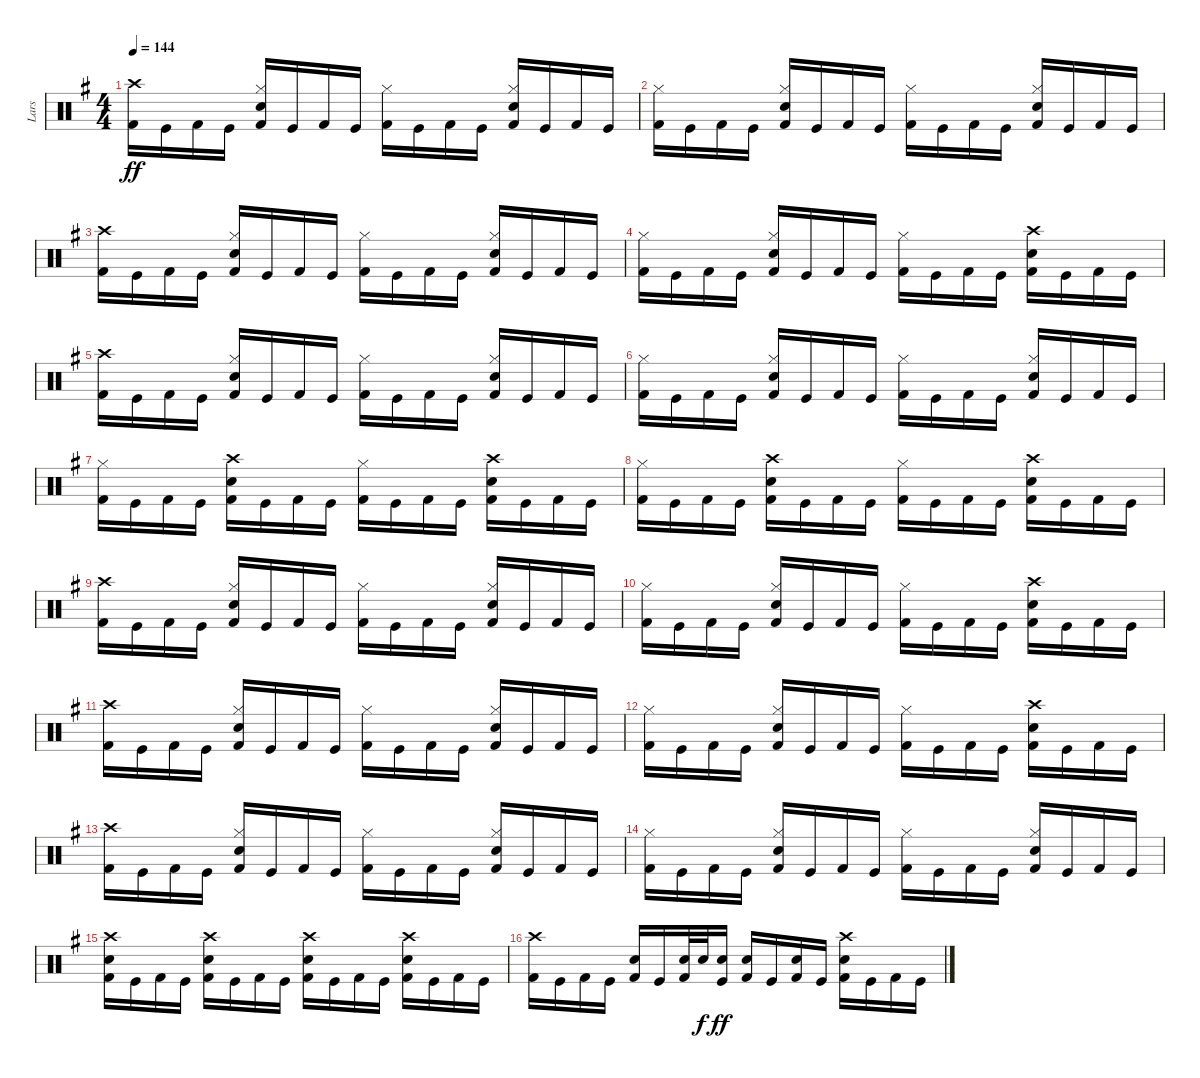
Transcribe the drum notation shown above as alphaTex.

\track ("Lars" "Lars") {instrument percussion}
\staff {score}
\articulation defaults
\ts (4 4)
\tempo 144
\clef neutral
\ks g
("Crash high (hit)" "Kick (hit) 2").16{dy ff} "Kick (hit)".16 "Kick (hit) 2".16 "Kick (hit)".16 ("Hi-Hat (closed)" "Snare (hit) 2" "Kick (hit) 2").16 "Kick (hit)".16 "Kick (hit) 2".16 "Kick (hit)".16 ("Hi-Hat (closed)" "Kick (hit) 2").16 "Kick (hit)".16 "Kick (hit) 2".16 "Kick (hit)".16 ("Hi-Hat (closed)" "Snare (hit) 2" "Kick (hit) 2").16 "Kick (hit)".16 "Kick (hit) 2".16 "Kick (hit)".16 |
("Hi-Hat (closed)" "Kick (hit) 2").16 "Kick (hit)".16 "Kick (hit) 2".16 "Kick (hit)".16 ("Hi-Hat (closed)" "Snare (hit) 2" "Kick (hit) 2").16 "Kick (hit)".16 "Kick (hit) 2".16 "Kick (hit)".16 ("Hi-Hat (closed)" "Kick (hit) 2").16 "Kick (hit)".16 "Kick (hit) 2".16 "Kick (hit)".16 ("Hi-Hat (closed)" "Snare (hit) 2" "Kick (hit) 2").16 "Kick (hit)".16 "Kick (hit) 2".16 "Kick (hit)".16 |
("Crash high (hit)" "Kick (hit) 2").16 "Kick (hit)".16 "Kick (hit) 2".16 "Kick (hit)".16 ("Hi-Hat (closed)" "Snare (hit) 2" "Kick (hit) 2").16 "Kick (hit)".16 "Kick (hit) 2".16 "Kick (hit)".16 ("Hi-Hat (closed)" "Kick (hit) 2").16 "Kick (hit)".16 "Kick (hit) 2".16 "Kick (hit)".16 ("Hi-Hat (closed)" "Snare (hit) 2" "Kick (hit) 2").16 "Kick (hit)".16 "Kick (hit) 2".16 "Kick (hit)".16 |
("Hi-Hat (closed)" "Kick (hit) 2").16 "Kick (hit)".16 "Kick (hit) 2".16 "Kick (hit)".16 ("Hi-Hat (closed)" "Snare (hit) 2" "Kick (hit) 2").16 "Kick (hit)".16 "Kick (hit) 2".16 "Kick (hit)".16 ("Hi-Hat (closed)" "Kick (hit) 2").16 "Kick (hit)".16 "Kick (hit) 2".16 "Kick (hit)".16 ("Crash high (hit)" "Snare (hit) 2" "Kick (hit) 2").16 "Kick (hit)".16 "Kick (hit) 2".16 "Kick (hit)".16 |
("Crash high (hit)" "Kick (hit) 2").16 "Kick (hit)".16 "Kick (hit) 2".16 "Kick (hit)".16 ("Hi-Hat (closed)" "Snare (hit) 2" "Kick (hit) 2").16 "Kick (hit)".16 "Kick (hit) 2".16 "Kick (hit)".16 ("Hi-Hat (closed)" "Kick (hit) 2").16 "Kick (hit)".16 "Kick (hit) 2".16 "Kick (hit)".16 ("Hi-Hat (closed)" "Snare (hit) 2" "Kick (hit) 2").16 "Kick (hit)".16 "Kick (hit) 2".16 "Kick (hit)".16 |
("Hi-Hat (closed)" "Kick (hit) 2").16 "Kick (hit)".16 "Kick (hit) 2".16 "Kick (hit)".16 ("Hi-Hat (closed)" "Snare (hit) 2" "Kick (hit) 2").16 "Kick (hit)".16 "Kick (hit) 2".16 "Kick (hit)".16 ("Hi-Hat (closed)" "Kick (hit) 2").16 "Kick (hit)".16 "Kick (hit) 2".16 "Kick (hit)".16 ("Hi-Hat (closed)" "Snare (hit) 2" "Kick (hit) 2").16 "Kick (hit)".16 "Kick (hit) 2".16 "Kick (hit)".16 |
("Hi-Hat (closed)" "Kick (hit) 2").16 "Kick (hit)".16 "Kick (hit) 2".16 "Kick (hit)".16 ("Crash high (hit)" "Snare (hit) 2" "Kick (hit) 2").16 "Kick (hit)".16 "Kick (hit) 2".16 "Kick (hit)".16 ("Hi-Hat (closed)" "Kick (hit) 2").16 "Kick (hit)".16 "Kick (hit) 2".16 "Kick (hit)".16 ("Crash high (hit)" "Snare (hit) 2" "Kick (hit) 2").16 "Kick (hit)".16 "Kick (hit) 2".16 "Kick (hit)".16 |
("Hi-Hat (closed)" "Kick (hit) 2").16 "Kick (hit)".16 "Kick (hit) 2".16 "Kick (hit)".16 ("Crash high (hit)" "Snare (hit) 2" "Kick (hit) 2").16 "Kick (hit)".16 "Kick (hit) 2".16 "Kick (hit)".16 ("Hi-Hat (closed)" "Kick (hit) 2").16 "Kick (hit)".16 "Kick (hit) 2".16 "Kick (hit)".16 ("Crash high (hit)" "Snare (hit) 2" "Kick (hit) 2").16 "Kick (hit)".16 "Kick (hit) 2".16 "Kick (hit)".16 |
("Crash high (hit)" "Kick (hit) 2").16 "Kick (hit)".16 "Kick (hit) 2".16 "Kick (hit)".16 ("Hi-Hat (closed)" "Snare (hit) 2" "Kick (hit) 2").16 "Kick (hit)".16 "Kick (hit) 2".16 "Kick (hit)".16 ("Hi-Hat (closed)" "Kick (hit) 2").16 "Kick (hit)".16 "Kick (hit) 2".16 "Kick (hit)".16 ("Hi-Hat (closed)" "Snare (hit) 2" "Kick (hit) 2").16 "Kick (hit)".16 "Kick (hit) 2".16 "Kick (hit)".16 |
("Hi-Hat (closed)" "Kick (hit) 2").16 "Kick (hit)".16 "Kick (hit) 2".16 "Kick (hit)".16 ("Hi-Hat (closed)" "Snare (hit) 2" "Kick (hit) 2").16 "Kick (hit)".16 "Kick (hit) 2".16 "Kick (hit)".16 ("Hi-Hat (closed)" "Kick (hit) 2").16 "Kick (hit)".16 "Kick (hit) 2".16 "Kick (hit)".16 ("Crash high (hit)" "Snare (hit) 2" "Kick (hit) 2").16 "Kick (hit)".16 "Kick (hit) 2".16 "Kick (hit)".16 |
("Crash high (hit)" "Kick (hit) 2").16 "Kick (hit)".16 "Kick (hit) 2".16 "Kick (hit)".16 ("Hi-Hat (closed)" "Snare (hit) 2" "Kick (hit) 2").16 "Kick (hit)".16 "Kick (hit) 2".16 "Kick (hit)".16 ("Hi-Hat (closed)" "Kick (hit) 2").16 "Kick (hit)".16 "Kick (hit) 2".16 "Kick (hit)".16 ("Hi-Hat (closed)" "Snare (hit) 2" "Kick (hit) 2").16 "Kick (hit)".16 "Kick (hit) 2".16 "Kick (hit)".16 |
("Hi-Hat (closed)" "Kick (hit) 2").16 "Kick (hit)".16 "Kick (hit) 2".16 "Kick (hit)".16 ("Hi-Hat (closed)" "Snare (hit) 2" "Kick (hit) 2").16 "Kick (hit)".16 "Kick (hit) 2".16 "Kick (hit)".16 ("Hi-Hat (closed)" "Kick (hit) 2").16 "Kick (hit)".16 "Kick (hit) 2".16 "Kick (hit)".16 ("Crash high (hit)" "Snare (hit) 2" "Kick (hit) 2").16 "Kick (hit)".16 "Kick (hit) 2".16 "Kick (hit)".16 |
("Crash high (hit)" "Kick (hit) 2").16 "Kick (hit)".16 "Kick (hit) 2".16 "Kick (hit)".16 ("Hi-Hat (closed)" "Snare (hit) 2" "Kick (hit) 2").16 "Kick (hit)".16 "Kick (hit) 2".16 "Kick (hit)".16 ("Hi-Hat (closed)" "Kick (hit) 2").16 "Kick (hit)".16 "Kick (hit) 2".16 "Kick (hit)".16 ("Hi-Hat (closed)" "Snare (hit) 2" "Kick (hit) 2").16 "Kick (hit)".16 "Kick (hit) 2".16 "Kick (hit)".16 |
("Hi-Hat (closed)" "Kick (hit) 2").16 "Kick (hit)".16 "Kick (hit) 2".16 "Kick (hit)".16 ("Hi-Hat (closed)" "Snare (hit) 2" "Kick (hit) 2").16 "Kick (hit)".16 "Kick (hit) 2".16 "Kick (hit)".16 ("Hi-Hat (closed)" "Kick (hit) 2").16 "Kick (hit)".16 "Kick (hit) 2".16 "Kick (hit)".16 ("Hi-Hat (closed)" "Snare (hit) 2" "Kick (hit) 2").16 "Kick (hit)".16 "Kick (hit) 2".16 "Kick (hit)".16 |
("Crash high (hit)" "Snare (hit) 2" "Kick (hit) 2").16 "Kick (hit)".16 "Kick (hit) 2".16 "Kick (hit)".16 ("Crash high (hit)" "Snare (hit) 2" "Kick (hit) 2").16 "Kick (hit)".16 "Kick (hit) 2".16 "Kick (hit)".16 ("Crash high (hit)" "Snare (hit) 2" "Kick (hit) 2").16 "Kick (hit)".16 "Kick (hit) 2".16 "Kick (hit)".16 ("Crash high (hit)" "Snare (hit) 2" "Kick (hit) 2").16 "Kick (hit)".16 "Kick (hit) 2".16 "Kick (hit)".16 |
("Crash high (hit)" "Kick (hit) 2").16 "Kick (hit)".16 "Kick (hit) 2".16 "Kick (hit)".16 ("Snare (hit) 2" "Kick (hit) 2").16 "Kick (hit)".16 ("Snare (hit) 2" "Kick (hit) 2").32 "Snare (hit) 2".32{dy f} ("Snare (hit) 2" "Kick (hit)").16{dy ff} ("Snare (hit) 2" "Kick (hit) 2").16 "Kick (hit)".16 ("Snare (hit) 2" "Kick (hit) 2").16 "Kick (hit)".16 ("Crash high (hit)" "Snare (hit) 2" "Kick (hit) 2").16 "Kick (hit)".16 "Kick (hit) 2".16 "Kick (hit)".16
